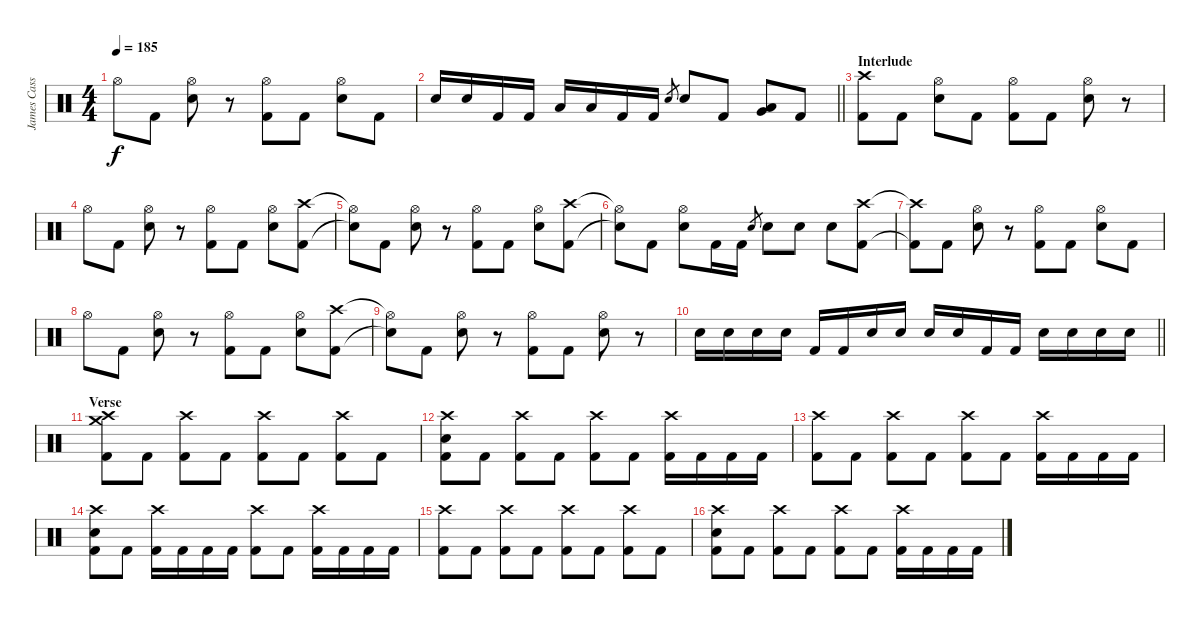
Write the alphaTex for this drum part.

\track ("James Cassells (Drums)" "James Cass") {instrument percussion}
\staff {score}
\articulation defaults
\ts (4 4)
\tempo 185
\clef neutral
\ks c "Hi-Hat (open)".8{dy f} "Kick (hit) 2".8
("Hi-Hat (open)" "Snare (hit) 2").8 r.8 ("Hi-Hat (open)" "Kick (hit) 2").8 "Kick (hit) 2".8 ("Hi-Hat (open)" "Snare (hit) 2").8 "Kick (hit) 2".8 |
\barLineRight lightlight "Snare (hit) 2".16 "Snare (hit) 2".16 "Kick (hit) 2".16 "Kick (hit) 2".16 "Low Tom (hit)".16 "Low Tom (hit)".16 "Kick (hit) 2".16 "Kick (hit) 2".16 "Snare (hit) 2".8{gr} "Snare (hit) 2".8 "Kick (hit) 2".8
("Very Low Tom (hit)" "Low Floor Tom (hit)").8 "Kick (hit) 2".8 |
\section ("" "Interlude")
("Crash high (hit)" "Kick (hit) 2").8 "Kick (hit) 2".8 ("Hi-Hat (open)" "Snare (hit) 2").8 "Kick (hit) 2".8 ("Hi-Hat (open)" "Kick (hit) 2").8 "Kick (hit) 2".8 ("Hi-Hat (open)" "Snare (hit) 2").8 r.8 |
"Hi-Hat (open)".8 "Kick (hit) 2".8 ("Hi-Hat (open)" "Snare (hit) 2").8 r.8 ("Hi-Hat (open)" "Kick (hit) 2").8 "Kick (hit) 2".8 ("Hi-Hat (open)" "Snare (hit) 2").8 ("Crash high (hit)" "Kick (hit) 2").8 |
("Hi-Hat (open)"{t} "Snare (hit)"{t}).8 "Kick (hit) 2".8 ("Hi-Hat (open)" "Snare (hit) 2").8 r.8 ("Hi-Hat (open)" "Kick (hit) 2").8 "Kick (hit) 2".8 ("Hi-Hat (open)" "Snare (hit) 2").8 ("Crash high (hit)" "Kick (hit) 2").8 |
("Hi-Hat (open)"{t} "Snare (hit)"{t}).8 "Kick (hit) 2".8 ("Hi-Hat (open)" "Snare (hit) 2").8 "Kick (hit) 2".16 "Kick (hit) 2".16 "Snare (hit) 2".8{gr} "Snare (hit) 2".8 "Snare (hit) 2".8 "Snare (hit) 2".8 ("Crash high (hit)" "Kick (hit) 2").8 |
("Crash high (hit)"{t} "Kick (hit) 2"{t}).8 "Kick (hit) 2".8 ("Hi-Hat (open)" "Snare (hit) 2").8 r.8 ("Hi-Hat (open)" "Kick (hit) 2").8 "Kick (hit) 2".8 ("Hi-Hat (open)" "Snare (hit) 2").8 "Kick (hit) 2".8 |
"Hi-Hat (open)".8 "Kick (hit) 2".8 ("Hi-Hat (open)" "Snare (hit) 2").8 r.8 ("Hi-Hat (open)" "Kick (hit) 2").8 "Kick (hit) 2".8 ("Hi-Hat (open)" "Snare (hit) 2").8 ("Crash high (hit)" "Kick (hit) 2").8 |
("Hi-Hat (open)"{t} "Snare (hit)"{t}).8 "Kick (hit) 2".8 ("Hi-Hat (open)" "Snare (hit) 2").8 r.8 ("Hi-Hat (open)" "Kick (hit) 2").8 "Kick (hit) 2".8 ("Hi-Hat (open)" "Snare (hit) 2").8 r.8 |
\barLineRight lightlight "Snare (hit) 2".16 "Snare (hit) 2".16 "Snare (hit) 2".16 "Snare (hit) 2".16 "Kick (hit) 2".16 "Kick (hit) 2".16 "Snare (hit) 2".16 "Snare (hit) 2".16 "Snare (hit) 2".16 "Snare (hit) 2".16 "Kick (hit) 2".16 "Kick (hit) 2".16 "Snare (hit) 2".16 "Snare (hit) 2".16 "Snare (hit) 2".16 "Snare (hit) 2".16
|
\section ("" "Verse ")
("Crash high (hit)" "Crash medium (hit)" "Kick (hit) 2").8 "Kick (hit) 2".8 ("Crash high (hit)" "Kick (hit) 2").8 "Kick (hit) 2".8 ("Crash high (hit)" "Kick (hit) 2").8 "Kick (hit) 2".8 ("Crash high (hit)" "Kick (hit) 2").8 "Kick (hit) 2".8 |
("Crash high (hit)" "Snare (hit) 2" "Kick (hit) 2").8 "Kick (hit) 2".8 ("Crash high (hit)" "Kick (hit) 2").8 "Kick (hit) 2".8 ("Crash high (hit)" "Kick (hit) 2").8 "Kick (hit) 2".8 ("Crash high (hit)" "Kick (hit) 2").16 "Kick (hit) 2".16 "Kick (hit) 2".16 "Kick (hit) 2".16 |
("Crash high (hit)" "Kick (hit) 2").8 "Kick (hit) 2".8 ("Crash high (hit)" "Kick (hit) 2").8 "Kick (hit) 2".8 ("Crash high (hit)" "Kick (hit) 2").8 "Kick (hit) 2".8 ("Crash high (hit)" "Kick (hit) 2").16 "Kick (hit) 2".16 "Kick (hit) 2".16 "Kick (hit) 2".16 |
("Crash high (hit)" "Snare (hit) 2" "Kick (hit) 2").8 "Kick (hit) 2".8 ("Crash high (hit)" "Kick (hit) 2").16 "Kick (hit) 2".16 "Kick (hit) 2".16 "Kick (hit) 2".16 ("Crash high (hit)" "Kick (hit) 2").8 "Kick (hit) 2".8 ("Crash high (hit)" "Kick (hit) 2").16 "Kick (hit) 2".16 "Kick (hit) 2".16 "Kick (hit) 2".16 |
("Crash high (hit)" "Kick (hit) 2").8 "Kick (hit) 2".8 ("Crash high (hit)" "Kick (hit) 2").8 "Kick (hit) 2".8 ("Crash high (hit)" "Kick (hit) 2").8 "Kick (hit) 2".8 ("Crash high (hit)" "Kick (hit) 2").8 "Kick (hit) 2".8 |
("Crash high (hit)" "Snare (hit) 2" "Kick (hit) 2").8 "Kick (hit) 2".8 ("Crash high (hit)" "Kick (hit) 2").8 "Kick (hit) 2".8 ("Crash high (hit)" "Kick (hit) 2").8 "Kick (hit) 2".8 ("Crash high (hit)" "Kick (hit) 2").16 "Kick (hit) 2".16 "Kick (hit) 2".16 "Kick (hit) 2".16
